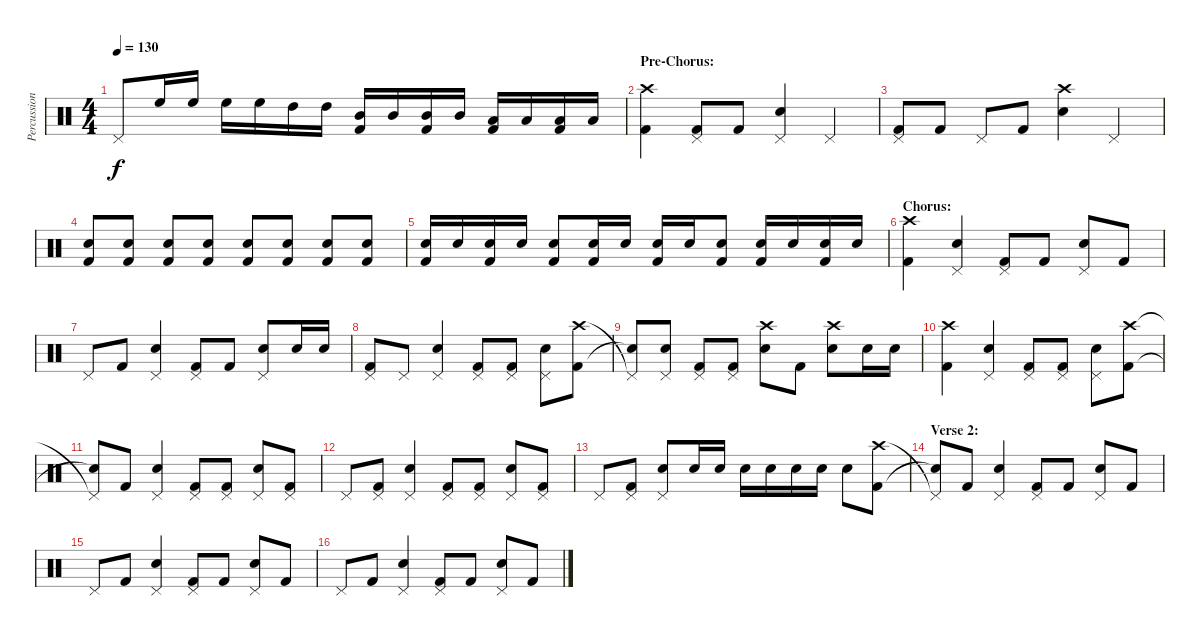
\track ("Percussion" "Percussion") {instrument percussion}
\staff {score}
\articulation defaults
\ts (4 4)
\tempo 130
\clef neutral
\ks c "Pedal Hi-Hat (hit)".8{dy f} "High Floor Tom (hit)".16 "High Floor Tom (hit)".16 "High Floor Tom (hit)".16 "High Floor Tom (hit)".16 "High Tom (hit)".16 "High Tom (hit)".16
("Mid Tom (hit)" "Kick (hit) 2").16 "Mid Tom (hit)".16 ("Mid Tom (hit)" "Kick (hit) 2").16 "Mid Tom (hit)".16 ("Low Tom (hit)" "Kick (hit) 2").16 "Low Tom (hit)".16 ("Low Tom (hit)" "Kick (hit) 2").16 "Low Tom (hit)".16 |
\section ("" "Pre-Chorus:")
("Crash high (hit)" "Kick (hit) 2").4 ("Pedal Hi-Hat (hit)" "Kick (hit) 2").8 "Kick (hit) 2".8 ("Pedal Hi-Hat (hit)" "Electric Snare (hit)").4 "Pedal Hi-Hat (hit)".4 |
("Pedal Hi-Hat (hit)" "Kick (hit) 2").8 "Kick (hit) 2".8 "Pedal Hi-Hat (hit)".8 "Kick (hit) 2".8 ("Crash high (hit)" "Electric Snare (hit)").4 "Pedal Hi-Hat (hit)".4 |
("Electric Snare (hit)" "Kick (hit) 2").8 ("Electric Snare (hit)" "Kick (hit) 2").8 ("Electric Snare (hit)" "Kick (hit) 2").8 ("Electric Snare (hit)" "Kick (hit) 2").8 ("Electric Snare (hit)" "Kick (hit) 2").8 ("Electric Snare (hit)" "Kick (hit) 2").8 ("Electric Snare (hit)" "Kick (hit) 2").8 ("Electric Snare (hit)" "Kick (hit) 2").8 |
("Electric Snare (hit)" "Kick (hit) 2").16 "Electric Snare (hit)".16 ("Electric Snare (hit)" "Kick (hit) 2").16 "Electric Snare (hit)".16 ("Electric Snare (hit)" "Kick (hit) 2").8 ("Electric Snare (hit)" "Kick (hit) 2").16 "Electric Snare (hit)".16 ("Electric Snare (hit)" "Kick (hit) 2").16 "Electric Snare (hit)".16 ("Electric Snare (hit)" "Kick (hit) 2").8 ("Electric Snare (hit)" "Kick (hit) 2").16 "Electric Snare (hit)".16 ("Electric Snare (hit)" "Kick (hit) 2").16 "Electric Snare (hit)".16 |
\section ("" "Chorus:")
("Crash high (hit)" "Kick (hit) 2").4 ("Pedal Hi-Hat (hit)" "Electric Snare (hit)").4 ("Pedal Hi-Hat (hit)" "Kick (hit) 2").8 "Kick (hit) 2".8 ("Pedal Hi-Hat (hit)" "Electric Snare (hit)").8 "Kick (hit) 2".8 |
"Pedal Hi-Hat (hit)".8 "Kick (hit) 2".8 ("Pedal Hi-Hat (hit)" "Electric Snare (hit)").4 ("Pedal Hi-Hat (hit)" "Kick (hit) 2").8 "Kick (hit) 2".8 ("Pedal Hi-Hat (hit)" "Electric Snare (hit)").8 "Electric Snare (hit)".16 "Electric Snare (hit)".16 |
("Pedal Hi-Hat (hit)" "Kick (hit) 2").8 "Pedal Hi-Hat (hit)".8 ("Pedal Hi-Hat (hit)" "Electric Snare (hit)").4 ("Pedal Hi-Hat (hit)" "Kick (hit) 2").8 ("Pedal Hi-Hat (hit)" "Kick (hit) 2").8 ("Pedal Hi-Hat (hit)" "Electric Snare (hit)").8 ("Crash high (hit)" "Kick (hit) 2").8 |
("Pedal Hi-Hat (hit)"{t} "Snare (hit)"{t}).8 ("Pedal Hi-Hat (hit)" "Electric Snare (hit)").8 ("Pedal Hi-Hat (hit)" "Kick (hit) 2").8 ("Pedal Hi-Hat (hit)" "Kick (hit) 2").8 ("Crash high (hit)" "Electric Snare (hit)").8 "Kick (hit) 2".8 ("Crash high (hit)" "Electric Snare (hit)").8 "Electric Snare (hit)".16 "Electric Snare (hit)".16 |
("Crash high (hit)" "Kick (hit) 2").4 ("Pedal Hi-Hat (hit)" "Electric Snare (hit)").4 ("Pedal Hi-Hat (hit)" "Kick (hit) 2").8 ("Pedal Hi-Hat (hit)" "Kick (hit) 2").8 ("Pedal Hi-Hat (hit)" "Electric Snare (hit)").8 ("Crash high (hit)" "Kick (hit) 2").8 |
("Pedal Hi-Hat (hit)"{t} "Snare (hit)"{t}).8 "Kick (hit) 2".8 ("Pedal Hi-Hat (hit)" "Electric Snare (hit)").4 ("Pedal Hi-Hat (hit)" "Kick (hit) 2").8 ("Pedal Hi-Hat (hit)" "Kick (hit) 2").8 ("Pedal Hi-Hat (hit)" "Electric Snare (hit)").8 ("Pedal Hi-Hat (hit)" "Kick (hit) 2").8 |
"Pedal Hi-Hat (hit)".8 ("Pedal Hi-Hat (hit)" "Kick (hit) 2").8 ("Pedal Hi-Hat (hit)" "Electric Snare (hit)").4 ("Pedal Hi-Hat (hit)" "Kick (hit) 2").8 ("Pedal Hi-Hat (hit)" "Kick (hit) 2").8 ("Pedal Hi-Hat (hit)" "Electric Snare (hit)").8 ("Pedal Hi-Hat (hit)" "Kick (hit) 2").8 |
"Pedal Hi-Hat (hit)".8 ("Pedal Hi-Hat (hit)" "Kick (hit) 2").8 ("Pedal Hi-Hat (hit)" "Electric Snare (hit)").8 "Electric Snare (hit)".16 "Electric Snare (hit)".16 "Electric Snare (hit)".16 "Electric Snare (hit)".16 "Electric Snare (hit)".16 "Electric Snare (hit)".16 "Electric Snare (hit)".8 ("Crash high (hit)" "Kick (hit) 2").8 |
\section ("" "Verse 2:")
("Pedal Hi-Hat (hit)"{t} "Snare (hit)"{t}).8 "Kick (hit) 2".8 ("Pedal Hi-Hat (hit)" "Electric Snare (hit)").4 ("Pedal Hi-Hat (hit)" "Kick (hit) 2").8 "Kick (hit) 2".8 ("Pedal Hi-Hat (hit)" "Electric Snare (hit)").8 "Kick (hit) 2".8 |
"Pedal Hi-Hat (hit)".8 "Kick (hit) 2".8 ("Pedal Hi-Hat (hit)" "Electric Snare (hit)").4 ("Pedal Hi-Hat (hit)" "Kick (hit) 2").8 "Kick (hit) 2".8 ("Pedal Hi-Hat (hit)" "Electric Snare (hit)").8 "Kick (hit) 2".8 |
"Pedal Hi-Hat (hit)".8 "Kick (hit) 2".8 ("Pedal Hi-Hat (hit)" "Electric Snare (hit)").4 ("Pedal Hi-Hat (hit)" "Kick (hit) 2").8 "Kick (hit) 2".8 ("Pedal Hi-Hat (hit)" "Electric Snare (hit)").8 "Kick (hit) 2".8
